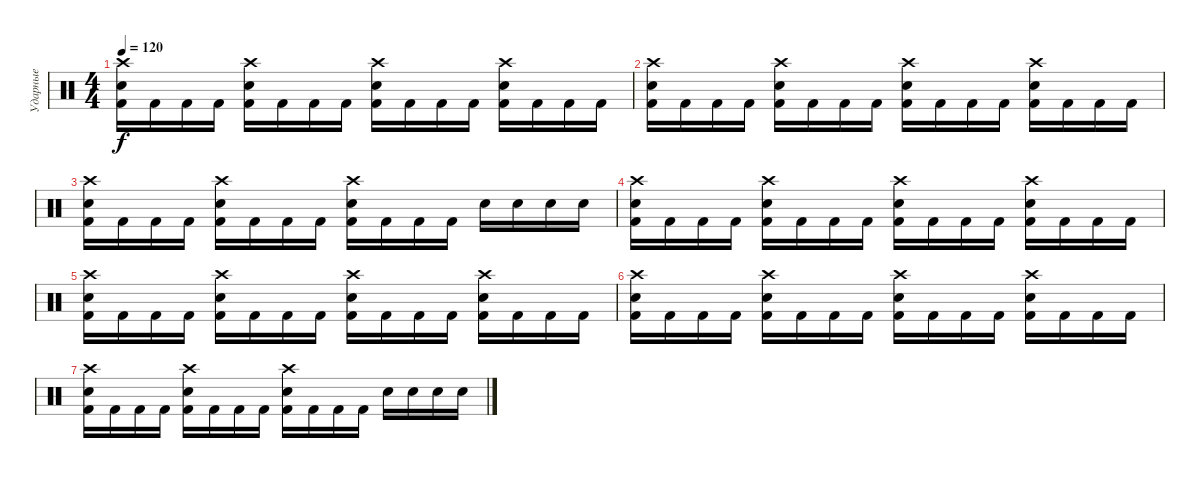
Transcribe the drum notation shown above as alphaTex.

\track ("Ударные" "Ударные") {instrument percussion}
\staff {score}
\articulation defaults
\ts (4 4)
\tempo 120
\clef neutral
\ks c
("Crash high (hit)" "Electric Snare (hit)" "Kick (hit) 2").16{dy f} "Kick (hit) 2".16 "Kick (hit) 2".16 "Kick (hit) 2".16 ("Crash high (hit)" "Electric Snare (hit)" "Kick (hit) 2").16 "Kick (hit) 2".16 "Kick (hit) 2".16 "Kick (hit) 2".16 ("Crash high (hit)" "Electric Snare (hit)" "Kick (hit) 2").16 "Kick (hit) 2".16 "Kick (hit) 2".16 "Kick (hit) 2".16 ("Crash high (hit)" "Electric Snare (hit)" "Kick (hit) 2").16 "Kick (hit) 2".16 "Kick (hit) 2".16 "Kick (hit) 2".16 |
("Crash high (hit)" "Electric Snare (hit)" "Kick (hit) 2").16 "Kick (hit) 2".16 "Kick (hit) 2".16 "Kick (hit) 2".16 ("Crash high (hit)" "Electric Snare (hit)" "Kick (hit) 2").16 "Kick (hit) 2".16 "Kick (hit) 2".16 "Kick (hit) 2".16 ("Crash high (hit)" "Electric Snare (hit)" "Kick (hit) 2").16 "Kick (hit) 2".16 "Kick (hit) 2".16 "Kick (hit) 2".16 ("Crash high (hit)" "Electric Snare (hit)" "Kick (hit) 2").16 "Kick (hit) 2".16 "Kick (hit) 2".16 "Kick (hit) 2".16 |
("Crash high (hit)" "Electric Snare (hit)" "Kick (hit) 2").16 "Kick (hit) 2".16 "Kick (hit) 2".16 "Kick (hit) 2".16 ("Crash high (hit)" "Electric Snare (hit)" "Kick (hit) 2").16 "Kick (hit) 2".16 "Kick (hit) 2".16 "Kick (hit) 2".16 ("Crash high (hit)" "Electric Snare (hit)" "Kick (hit) 2").16 "Kick (hit) 2".16 "Kick (hit) 2".16 "Kick (hit) 2".16 "Electric Snare (hit)".16 "Electric Snare (hit)".16 "Electric Snare (hit)".16 "Electric Snare (hit)".16 |
("Crash high (hit)" "Electric Snare (hit)" "Kick (hit) 2").16 "Kick (hit) 2".16 "Kick (hit) 2".16 "Kick (hit) 2".16 ("Crash high (hit)" "Electric Snare (hit)" "Kick (hit) 2").16 "Kick (hit) 2".16 "Kick (hit) 2".16 "Kick (hit) 2".16 ("Crash high (hit)" "Electric Snare (hit)" "Kick (hit) 2").16 "Kick (hit) 2".16 "Kick (hit) 2".16 "Kick (hit) 2".16 ("Crash high (hit)" "Electric Snare (hit)" "Kick (hit) 2").16 "Kick (hit) 2".16 "Kick (hit) 2".16 "Kick (hit) 2".16 |
("Crash high (hit)" "Electric Snare (hit)" "Kick (hit) 2").16 "Kick (hit) 2".16 "Kick (hit) 2".16 "Kick (hit) 2".16 ("Crash high (hit)" "Electric Snare (hit)" "Kick (hit) 2").16 "Kick (hit) 2".16 "Kick (hit) 2".16 "Kick (hit) 2".16 ("Crash high (hit)" "Electric Snare (hit)" "Kick (hit) 2").16 "Kick (hit) 2".16 "Kick (hit) 2".16 "Kick (hit) 2".16 ("Crash high (hit)" "Electric Snare (hit)" "Kick (hit) 2").16 "Kick (hit) 2".16 "Kick (hit) 2".16 "Kick (hit) 2".16 |
("Crash high (hit)" "Electric Snare (hit)" "Kick (hit) 2").16 "Kick (hit) 2".16 "Kick (hit) 2".16 "Kick (hit) 2".16 ("Crash high (hit)" "Electric Snare (hit)" "Kick (hit) 2").16 "Kick (hit) 2".16 "Kick (hit) 2".16 "Kick (hit) 2".16 ("Crash high (hit)" "Electric Snare (hit)" "Kick (hit) 2").16 "Kick (hit) 2".16 "Kick (hit) 2".16 "Kick (hit) 2".16 ("Crash high (hit)" "Electric Snare (hit)" "Kick (hit) 2").16 "Kick (hit) 2".16 "Kick (hit) 2".16 "Kick (hit) 2".16 |
("Crash high (hit)" "Electric Snare (hit)" "Kick (hit) 2").16 "Kick (hit) 2".16 "Kick (hit) 2".16 "Kick (hit) 2".16 ("Crash high (hit)" "Electric Snare (hit)" "Kick (hit) 2").16 "Kick (hit) 2".16 "Kick (hit) 2".16 "Kick (hit) 2".16 ("Crash high (hit)" "Electric Snare (hit)" "Kick (hit) 2").16 "Kick (hit) 2".16 "Kick (hit) 2".16 "Kick (hit) 2".16 "Electric Snare (hit)".16 "Electric Snare (hit)".16 "Electric Snare (hit)".16 "Electric Snare (hit)".16
